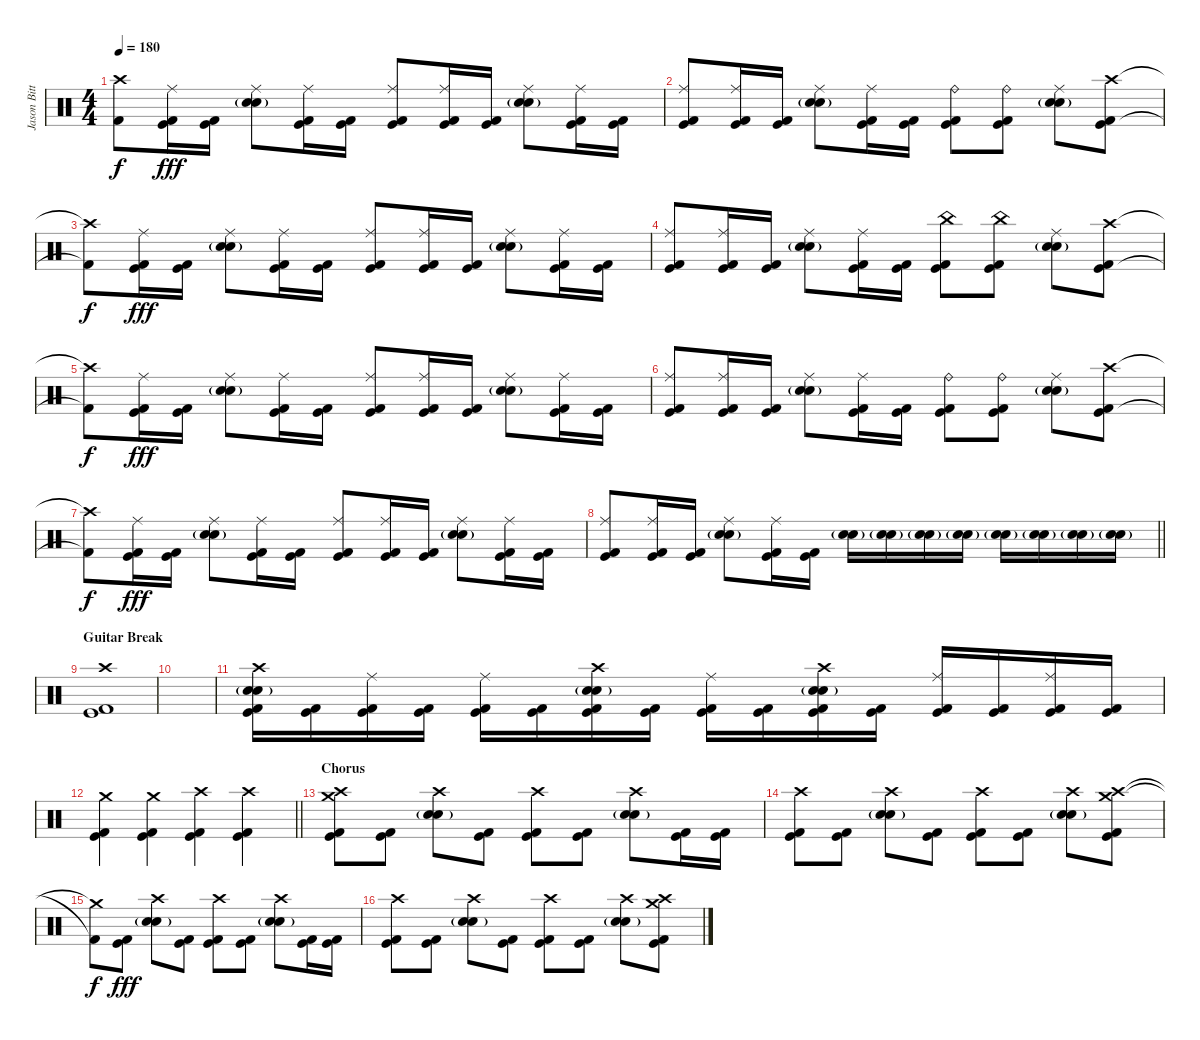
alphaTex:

\track ("Jason Bittner" "Jason Bitt") {instrument percussion}
\staff {score}
\articulation defaults
\ts (4 4)
\tempo 180
\clef neutral
\ks c
("Crash high (hit)"{t} "Kick (hit) 2"{t}).8{dy f} ("Ride (middle)" "Kick (hit)" "Kick (hit) 2").16{dy fff} ("Kick (hit)" "Kick (hit) 2").16 ("Ride (middle)" "Snare (hit) 2"{g} "Electric Snare (hit)").8 ("Ride (middle)" "Kick (hit)" "Kick (hit) 2").16 ("Kick (hit)" "Kick (hit) 2").16 ("Ride (middle)" "Kick (hit)" "Kick (hit) 2").8 ("Ride (middle)" "Kick (hit)" "Kick (hit) 2").16 ("Kick (hit)" "Kick (hit) 2").16 ("Ride (middle)" "Snare (hit) 2"{g} "Electric Snare (hit)").8 ("Ride (middle)" "Kick (hit)" "Kick (hit) 2").16 ("Kick (hit)" "Kick (hit) 2").16 |
("Ride (middle)" "Kick (hit)" "Kick (hit) 2").8 ("Ride (middle)" "Kick (hit)" "Kick (hit) 2").16 ("Kick (hit)" "Kick (hit) 2").16 ("Ride (middle)" "Snare (hit) 2"{g} "Electric Snare (hit)").8 ("Ride (middle)" "Kick (hit)" "Kick (hit) 2").16 ("Kick (hit)" "Kick (hit) 2").16 ("Ride (bell)" "Kick (hit)" "Kick (hit) 2").8 ("Ride (bell)" "Kick (hit)" "Kick (hit) 2").8 ("Ride (middle)" "Snare (hit) 2"{g} "Electric Snare (hit)").8 ("Crash high (hit)" "Kick (hit)" "Kick (hit) 2").8 |
("Crash high (hit)"{t} "Kick (hit) 2"{t}).8{dy f} ("Ride (middle)" "Kick (hit)" "Kick (hit) 2").16{dy fff} ("Kick (hit)" "Kick (hit) 2").16 ("Ride (middle)" "Snare (hit) 2"{g} "Electric Snare (hit)").8 ("Ride (middle)" "Kick (hit)" "Kick (hit) 2").16 ("Kick (hit)" "Kick (hit) 2").16 ("Ride (middle)" "Kick (hit)" "Kick (hit) 2").8 ("Ride (middle)" "Kick (hit)" "Kick (hit) 2").16 ("Kick (hit)" "Kick (hit) 2").16 ("Ride (middle)" "Snare (hit) 2"{g} "Electric Snare (hit)").8 ("Ride (middle)" "Kick (hit)" "Kick (hit) 2").16 ("Kick (hit)" "Kick (hit) 2").16 |
("Ride (middle)" "Kick (hit)" "Kick (hit) 2").8 ("Ride (middle)" "Kick (hit)" "Kick (hit) 2").16 ("Kick (hit)" "Kick (hit) 2").16 ("Ride (middle)" "Snare (hit) 2"{g} "Electric Snare (hit)").8 ("Ride (middle)" "Kick (hit)" "Kick (hit) 2").16 ("Kick (hit)" "Kick (hit) 2").16 ("China (hit)" "Kick (hit)" "Kick (hit) 2").8 ("China (hit)" "Kick (hit)" "Kick (hit) 2").8 ("Ride (middle)" "Snare (hit) 2"{g} "Electric Snare (hit)").8 ("Crash high (hit)" "Kick (hit)" "Kick (hit) 2").8 |
("Crash high (hit)"{t} "Kick (hit) 2"{t}).8{dy f} ("Ride (middle)" "Kick (hit)" "Kick (hit) 2").16{dy fff} ("Kick (hit)" "Kick (hit) 2").16 ("Ride (middle)" "Snare (hit) 2"{g} "Electric Snare (hit)").8 ("Ride (middle)" "Kick (hit)" "Kick (hit) 2").16 ("Kick (hit)" "Kick (hit) 2").16 ("Ride (middle)" "Kick (hit)" "Kick (hit) 2").8 ("Ride (middle)" "Kick (hit)" "Kick (hit) 2").16 ("Kick (hit)" "Kick (hit) 2").16 ("Ride (middle)" "Snare (hit) 2"{g} "Electric Snare (hit)").8 ("Ride (middle)" "Kick (hit)" "Kick (hit) 2").16 ("Kick (hit)" "Kick (hit) 2").16 |
("Ride (middle)" "Kick (hit)" "Kick (hit) 2").8 ("Ride (middle)" "Kick (hit)" "Kick (hit) 2").16 ("Kick (hit)" "Kick (hit) 2").16 ("Ride (middle)" "Snare (hit) 2"{g} "Electric Snare (hit)").8 ("Ride (middle)" "Kick (hit)" "Kick (hit) 2").16 ("Kick (hit)" "Kick (hit) 2").16 ("Ride (bell)" "Kick (hit)" "Kick (hit) 2").8 ("Ride (bell)" "Kick (hit)" "Kick (hit) 2").8 ("Ride (middle)" "Snare (hit) 2"{g} "Electric Snare (hit)").8 ("Crash high (hit)" "Kick (hit)" "Kick (hit) 2").8 |
("Crash high (hit)"{t} "Kick (hit) 2"{t}).8{dy f} ("Ride (middle)" "Kick (hit)" "Kick (hit) 2").16{dy fff} ("Kick (hit)" "Kick (hit) 2").16 ("Ride (middle)" "Snare (hit) 2"{g} "Electric Snare (hit)").8 ("Ride (middle)" "Kick (hit)" "Kick (hit) 2").16 ("Kick (hit)" "Kick (hit) 2").16 ("Ride (middle)" "Kick (hit)" "Kick (hit) 2").8 ("Ride (middle)" "Kick (hit)" "Kick (hit) 2").16 ("Kick (hit)" "Kick (hit) 2").16 ("Ride (middle)" "Snare (hit) 2"{g} "Electric Snare (hit)").8 ("Ride (middle)" "Kick (hit)" "Kick (hit) 2").16 ("Kick (hit)" "Kick (hit) 2").16 |
\barLineRight lightlight
("Ride (middle)" "Kick (hit)" "Kick (hit) 2").8 ("Ride (middle)" "Kick (hit)" "Kick (hit) 2").16 ("Kick (hit)" "Kick (hit) 2").16 ("Ride (middle)" "Snare (hit) 2"{g} "Electric Snare (hit)").8 ("Ride (middle)" "Kick (hit)" "Kick (hit) 2").16 ("Kick (hit)" "Kick (hit) 2").16 ("Snare (hit) 2"{g} "Electric Snare (hit)").16 ("Snare (hit) 2"{g} "Electric Snare (hit)").16 ("Snare (hit) 2"{g} "Electric Snare (hit)").16 ("Snare (hit) 2"{g} "Electric Snare (hit)").16 ("Snare (hit) 2"{g} "Electric Snare (hit)").16 ("Snare (hit) 2"{g} "Electric Snare (hit)").16 ("Snare (hit) 2"{g} "Electric Snare (hit)").16 ("Snare (hit) 2"{g} "Electric Snare (hit)").16 |
\section ("" "Guitar Break")
("Crash high (hit)" "Kick (hit)" "Kick (hit) 2").1 |
|
("Crash high (hit)" "Snare (hit) 2"{g} "Electric Snare (hit)" "Kick (hit)" "Kick (hit) 2").16 ("Kick (hit)" "Kick (hit) 2").16 ("Ride (middle)" "Kick (hit)" "Kick (hit) 2").16 ("Kick (hit)" "Kick (hit) 2").16 ("Ride (middle)" "Kick (hit)" "Kick (hit) 2").16 ("Kick (hit)" "Kick (hit) 2").16 ("Crash high (hit)" "Snare (hit) 2"{g} "Electric Snare (hit)" "Kick (hit)" "Kick (hit) 2").16 ("Kick (hit)" "Kick (hit) 2").16 ("Ride (middle)" "Kick (hit)" "Kick (hit) 2").16 ("Kick (hit)" "Kick (hit) 2").16 ("Crash high (hit)" "Snare (hit) 2"{g} "Electric Snare (hit)" "Kick (hit)" "Kick (hit) 2").16 ("Kick (hit)" "Kick (hit) 2").16 ("Ride (middle)" "Kick (hit)" "Kick (hit) 2").16 ("Kick (hit)" "Kick (hit) 2").16 ("Ride (middle)" "Kick (hit)" "Kick (hit) 2").16 ("Kick (hit)" "Kick (hit) 2").16 |
\barLineRight lightlight
("Crash medium (hit)" "Kick (hit)" "Kick (hit) 2").4 ("Crash medium (hit)" "Kick (hit)" "Kick (hit) 2").4 ("Crash high (hit)" "Kick (hit)" "Kick (hit) 2").4 ("Crash high (hit)" "Kick (hit)" "Kick (hit) 2").4 |
\section ("" "Chorus")
("Crash medium (hit)" "Crash high (hit)" "Kick (hit)" "Kick (hit) 2").8 ("Kick (hit)" "Kick (hit) 2").8 ("Crash high (hit)" "Snare (hit) 2"{g} "Electric Snare (hit)").8 ("Kick (hit)" "Kick (hit) 2").8 ("Crash high (hit)" "Kick (hit)" "Kick (hit) 2").8 ("Kick (hit)" "Kick (hit) 2").8 ("Crash high (hit)" "Snare (hit) 2"{g} "Electric Snare (hit)").8 ("Kick (hit)" "Kick (hit) 2").16 ("Kick (hit)" "Kick (hit) 2").16 |
("Crash high (hit)" "Kick (hit)" "Kick (hit) 2").8 ("Kick (hit)" "Kick (hit) 2").8 ("Crash high (hit)" "Snare (hit) 2"{g} "Electric Snare (hit)").8 ("Kick (hit)" "Kick (hit) 2").8 ("Crash high (hit)" "Kick (hit)" "Kick (hit) 2").8 ("Kick (hit)" "Kick (hit) 2").8 ("Crash high (hit)" "Snare (hit) 2"{g} "Electric Snare (hit)").8 ("Crash medium (hit)" "Crash high (hit)" "Kick (hit)" "Kick (hit) 2").8 |
("Crash medium (hit)"{t} "Kick (hit) 2"{t}).8{dy f} ("Kick (hit)" "Kick (hit) 2").8{dy fff} ("Crash high (hit)" "Snare (hit) 2"{g} "Electric Snare (hit)").8 ("Kick (hit)" "Kick (hit) 2").8 ("Crash high (hit)" "Kick (hit)" "Kick (hit) 2").8 ("Kick (hit)" "Kick (hit) 2").8 ("Crash high (hit)" "Snare (hit) 2"{g} "Electric Snare (hit)").8 ("Kick (hit)" "Kick (hit) 2").16 ("Kick (hit)" "Kick (hit) 2").16 |
("Crash high (hit)" "Kick (hit)" "Kick (hit) 2").8 ("Kick (hit)" "Kick (hit) 2").8 ("Crash high (hit)" "Snare (hit) 2"{g} "Electric Snare (hit)").8 ("Kick (hit)" "Kick (hit) 2").8 ("Crash high (hit)" "Kick (hit)" "Kick (hit) 2").8 ("Kick (hit)" "Kick (hit) 2").8 ("Crash high (hit)" "Snare (hit) 2"{g} "Electric Snare (hit)").8 ("Crash medium (hit)" "Crash high (hit)" "Kick (hit)" "Kick (hit) 2").8
